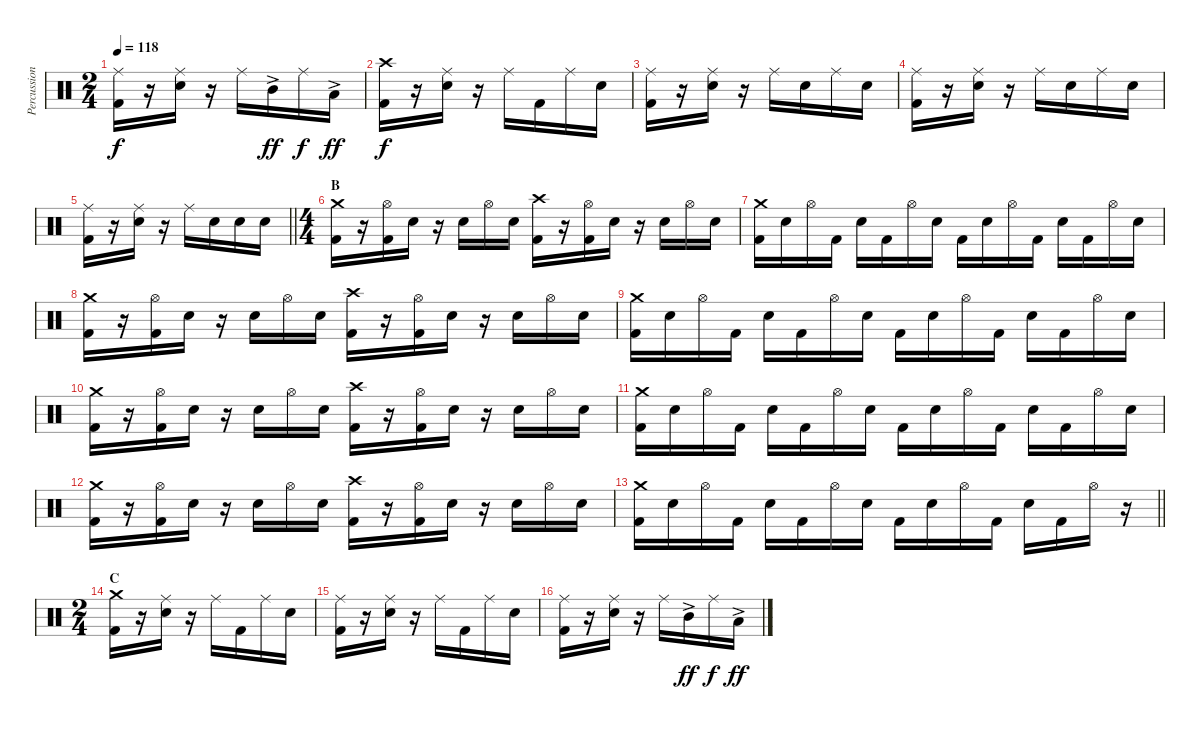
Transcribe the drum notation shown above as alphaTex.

\track ("Percussion" "Percussion") {instrument percussion}
\staff {score}
\articulation defaults
\ts (2 4)
\tempo 118
\clef neutral
\ks c
("Ride (middle)" "Kick (hit) 2").16{dy f} r.16 ("Ride (middle)" "Electric Snare (hit)").16 r.16 "Ride (middle)".16 "Mid Tom (hit)"{ac}.16{dy ff} "Ride (middle)".16{dy f} "Low Tom (hit)"{ac}.16{dy ff} |
("Crash high (hit)" "Kick (hit) 2").16{dy f} r.16 ("Ride (middle)" "Electric Snare (hit)").16 r.16 "Ride (middle)".16 "Kick (hit) 2".16 "Ride (middle)".16 "Electric Snare (hit)".16 |
("Ride (middle)" "Kick (hit) 2").16 r.16 ("Ride (middle)" "Electric Snare (hit)").16 r.16 "Ride (middle)".16 "Electric Snare (hit)".16 "Ride (middle)".16 "Electric Snare (hit)".16 |
("Ride (middle)" "Kick (hit) 2").16 r.16 ("Ride (middle)" "Electric Snare (hit)").16 r.16 "Ride (middle)".16 "Electric Snare (hit)".16 "Ride (middle)".16 "Electric Snare (hit)".16 |
\barLineRight lightlight
("Ride (middle)" "Kick (hit) 2").16 r.16 ("Ride (middle)" "Electric Snare (hit)").16 r.16 "Ride (middle)".16 "Electric Snare (hit)".16 "Electric Snare (hit)".16 "Electric Snare (hit)".16 |
\ts (4 4)
\section ("" "B")
("Crash medium (hit)" "Kick (hit) 2").16 r.16 ("Hi-Hat (open)" "Kick (hit) 2").16 "Electric Snare (hit)".16 r.16 "Electric Snare (hit)".16 "Hi-Hat (open)".16 "Electric Snare (hit)".16 ("Crash high (hit)" "Kick (hit) 2").16 r.16 ("Hi-Hat (open)" "Kick (hit) 2").16 "Electric Snare (hit)".16 r.16 "Electric Snare (hit)".16 "Hi-Hat (open)".16 "Electric Snare (hit)".16 |
("Crash medium (hit)" "Kick (hit) 2").16 "Electric Snare (hit)".16 "Hi-Hat (open)".16 "Kick (hit) 2".16 "Electric Snare (hit)".16 "Kick (hit) 2".16 "Hi-Hat (open)".16 "Electric Snare (hit)".16 "Kick (hit) 2".16 "Electric Snare (hit)".16 "Hi-Hat (open)".16 "Kick (hit) 2".16 "Electric Snare (hit)".16 "Kick (hit) 2".16 "Hi-Hat (open)".16 "Electric Snare (hit)".16 |
("Crash medium (hit)" "Kick (hit) 2").16 r.16 ("Hi-Hat (open)" "Kick (hit) 2").16 "Electric Snare (hit)".16 r.16 "Electric Snare (hit)".16 "Hi-Hat (open)".16 "Electric Snare (hit)".16 ("Crash high (hit)" "Kick (hit) 2").16 r.16 ("Hi-Hat (open)" "Kick (hit) 2").16 "Electric Snare (hit)".16 r.16 "Electric Snare (hit)".16 "Hi-Hat (open)".16 "Electric Snare (hit)".16 |
("Crash medium (hit)" "Kick (hit) 2").16 "Electric Snare (hit)".16 "Hi-Hat (open)".16 "Kick (hit) 2".16 "Electric Snare (hit)".16 "Kick (hit) 2".16 "Hi-Hat (open)".16 "Electric Snare (hit)".16 "Kick (hit) 2".16 "Electric Snare (hit)".16 "Hi-Hat (open)".16 "Kick (hit) 2".16 "Electric Snare (hit)".16 "Kick (hit) 2".16 "Hi-Hat (open)".16 "Electric Snare (hit)".16 |
("Crash medium (hit)" "Kick (hit) 2").16 r.16 ("Hi-Hat (open)" "Kick (hit) 2").16 "Electric Snare (hit)".16 r.16 "Electric Snare (hit)".16 "Hi-Hat (open)".16 "Electric Snare (hit)".16 ("Crash high (hit)" "Kick (hit) 2").16 r.16 ("Hi-Hat (open)" "Kick (hit) 2").16 "Electric Snare (hit)".16 r.16 "Electric Snare (hit)".16 "Hi-Hat (open)".16 "Electric Snare (hit)".16 |
("Crash medium (hit)" "Kick (hit) 2").16 "Electric Snare (hit)".16 "Hi-Hat (open)".16 "Kick (hit) 2".16 "Electric Snare (hit)".16 "Kick (hit) 2".16 "Hi-Hat (open)".16 "Electric Snare (hit)".16 "Kick (hit) 2".16 "Electric Snare (hit)".16 "Hi-Hat (open)".16 "Kick (hit) 2".16 "Electric Snare (hit)".16 "Kick (hit) 2".16 "Hi-Hat (open)".16 "Electric Snare (hit)".16 |
("Crash medium (hit)" "Kick (hit) 2").16 r.16 ("Hi-Hat (open)" "Kick (hit) 2").16 "Electric Snare (hit)".16 r.16 "Electric Snare (hit)".16 "Hi-Hat (open)".16 "Electric Snare (hit)".16 ("Crash high (hit)" "Kick (hit) 2").16 r.16 ("Hi-Hat (open)" "Kick (hit) 2").16 "Electric Snare (hit)".16 r.16 "Electric Snare (hit)".16 "Hi-Hat (open)".16 "Electric Snare (hit)".16 |
\barLineRight lightlight
("Crash medium (hit)" "Kick (hit) 2").16 "Electric Snare (hit)".16 "Hi-Hat (open)".16 "Kick (hit) 2".16 "Electric Snare (hit)".16 "Kick (hit) 2".16 "Hi-Hat (open)".16 "Electric Snare (hit)".16 "Kick (hit) 2".16 "Electric Snare (hit)".16 "Hi-Hat (open)".16 "Kick (hit) 2".16 "Electric Snare (hit)".16 "Kick (hit) 2".16 "Hi-Hat (open)".16 r.16 |
\ts (2 4)
\section ("" "C")
("Crash medium (hit)" "Kick (hit) 2").16 r.16 ("Ride (middle)" "Electric Snare (hit)").16 r.16 "Ride (middle)".16 "Kick (hit) 2".16 "Ride (middle)".16 "Electric Snare (hit)".16 |
("Ride (middle)" "Kick (hit) 2").16 r.16 ("Ride (middle)" "Electric Snare (hit)").16 r.16 "Ride (middle)".16 "Kick (hit) 2".16 "Ride (middle)".16 "Electric Snare (hit)".16 |
("Ride (middle)" "Kick (hit) 2").16 r.16 ("Ride (middle)" "Electric Snare (hit)").16 r.16 "Ride (middle)".16 "Mid Tom (hit)"{ac}.16{dy ff} "Ride (middle)".16{dy f} "Low Tom (hit)"{ac}.16{dy ff}
